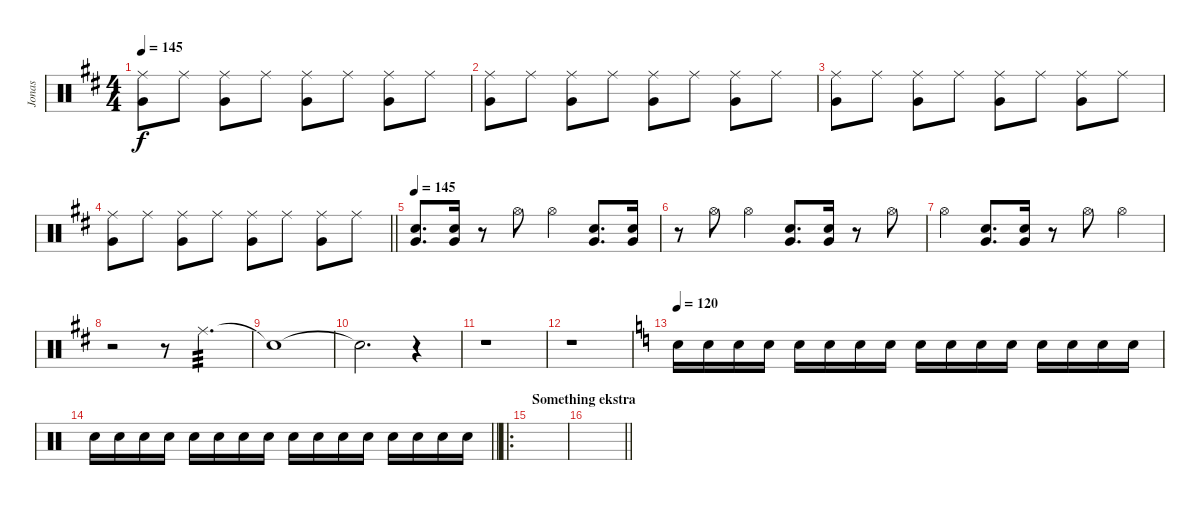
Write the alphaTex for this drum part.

\track ("Jonas" "Jonas") {instrument percussion}
\staff {score}
\articulation defaults
\ts (4 4)
\tempo 145
\clef neutral
\ks d
("Very Low Tom (hit)" "Ride (middle)").8{dy f} "Ride (middle)".8 ("Very Low Tom (hit)" "Ride (middle)").8 "Ride (middle)".8 ("Very Low Tom (hit)" "Ride (middle)").8 "Ride (middle)".8 ("Very Low Tom (hit)" "Ride (middle)").8 "Ride (middle)".8 |
("Very Low Tom (hit)" "Ride (middle)").8 "Ride (middle)".8 ("Very Low Tom (hit)" "Ride (middle)").8 "Ride (middle)".8 ("Very Low Tom (hit)" "Ride (middle)").8 "Ride (middle)".8 ("Very Low Tom (hit)" "Ride (middle)").8 "Ride (middle)".8 |
("Very Low Tom (hit)" "Ride (middle)").8 "Ride (middle)".8 ("Very Low Tom (hit)" "Ride (middle)").8 "Ride (middle)".8 ("Very Low Tom (hit)" "Ride (middle)").8 "Ride (middle)".8 ("Very Low Tom (hit)" "Ride (middle)").8 "Ride (middle)".8 |
\barLineRight lightlight
("Very Low Tom (hit)" "Ride (middle)").8 "Ride (middle)".8 ("Very Low Tom (hit)" "Ride (middle)").8 "Ride (middle)".8 ("Very Low Tom (hit)" "Ride (middle)").8 "Ride (middle)".8 ("Very Low Tom (hit)" "Ride (middle)").8 "Ride (middle)".8 |
\tempo 145
("Snare (hit) 2" "Very Low Tom (hit)").8{d} ("Snare (hit) 2" "Very Low Tom (hit)").16 r.8 "Hi-Hat (open)".8 "Hi-Hat (open)".4 ("Snare (hit) 2" "Very Low Tom (hit)").8{d} ("Snare (hit) 2" "Very Low Tom (hit)").16 |
r.8 "Hi-Hat (open)".8 "Hi-Hat (open)".4 ("Snare (hit) 2" "Very Low Tom (hit)").8{d} ("Snare (hit) 2" "Very Low Tom (hit)").16 r.8 "Hi-Hat (open)".8 |
"Hi-Hat (open)".4 ("Snare (hit) 2" "Very Low Tom (hit)").8{d} ("Snare (hit) 2" "Very Low Tom (hit)").16 r.8 "Hi-Hat (open)".8 "Hi-Hat (open)".4 |
r.2 r.8{volume 0} "Ride (middle)".4{d tp 3 volume 16} |
"Snare (hit)"{t}.1 |
"Snare (hit)"{t}.2{d} r.4 |
r.1 |
r.1 |
\tempo 120
\ks c "Hand Clap (hit)".16 "Hand Clap (hit)".16 "Hand Clap (hit)".16 "Hand Clap (hit)".16 "Hand Clap (hit)".16 "Hand Clap (hit)".16 "Hand Clap (hit)".16 "Hand Clap (hit)".16 "Hand Clap (hit)".16 "Hand Clap (hit)".16 "Hand Clap (hit)".16 "Hand Clap (hit)".16 "Hand Clap (hit)".16 "Hand Clap (hit)".16 "Hand Clap (hit)".16 "Hand Clap (hit)".16
|
\barLineRight lightlight "Hand Clap (hit)".16 "Hand Clap (hit)".16 "Hand Clap (hit)".16 "Hand Clap (hit)".16 "Hand Clap (hit)".16 "Hand Clap (hit)".16 "Hand Clap (hit)".16 "Hand Clap (hit)".16 "Hand Clap (hit)".16 "Hand Clap (hit)".16 "Hand Clap (hit)".16 "Hand Clap (hit)".16 "Hand Clap (hit)".16 "Hand Clap (hit)".16 "Hand Clap (hit)".16 "Hand Clap (hit)".16
|
\ro
\section ("" "Something ekstra")
|
\barLineRight lightlight
